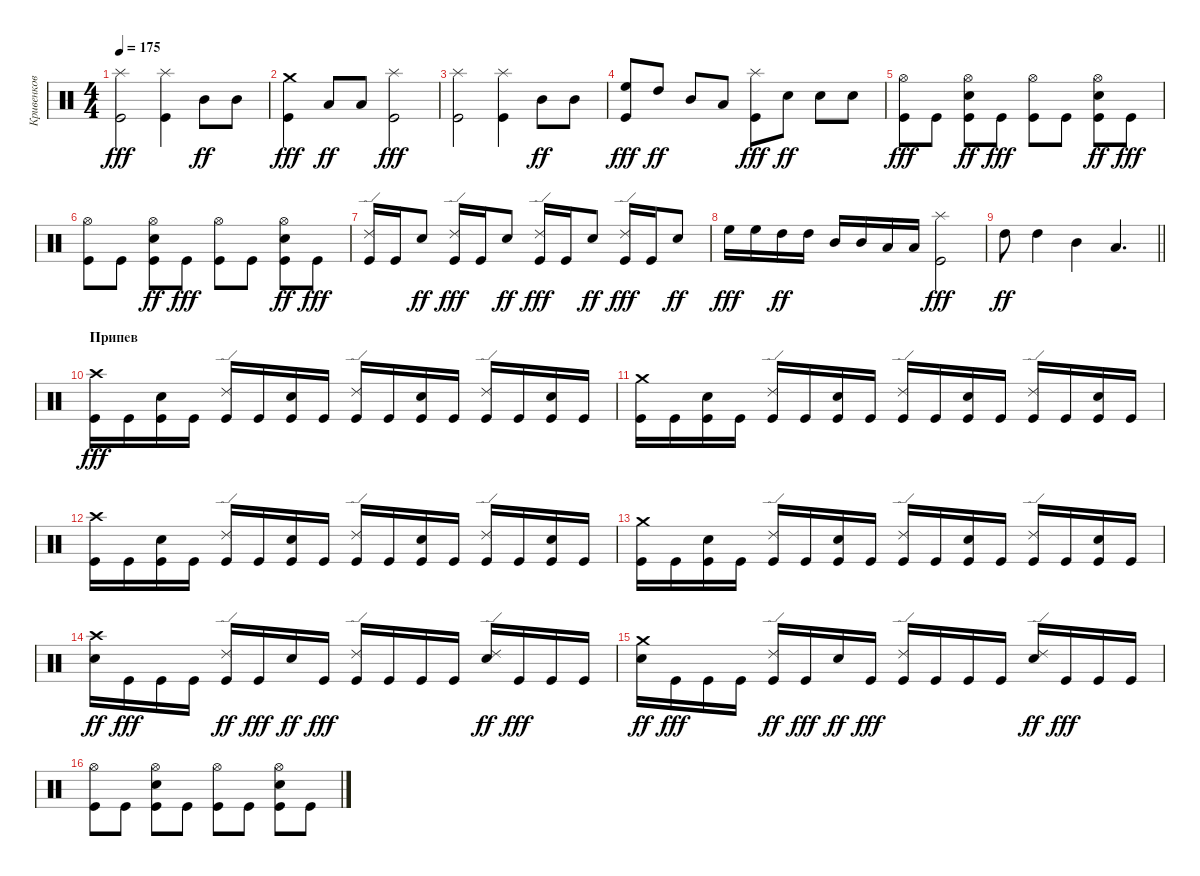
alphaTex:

\track ("Кривенков" "Кривенков") {instrument percussion}
\staff {score}
\articulation defaults
\ts (4 4)
\tempo 175
\clef neutral
\ks c
("Splash (hit)" "Kick (hit)").2{dy fff} ("Splash (hit)" "Kick (hit)").4 "Mid Tom (hit)".8{dy ff} "Mid Tom (hit)".8 |
("Crash medium (hit)" "Kick (hit)").4{dy fff} "Low Tom (hit)".8{dy ff} "Low Tom (hit)".8 ("Splash (hit)" "Kick (hit)").2{dy fff} |
("Splash (hit)" "Kick (hit)").2 ("Splash (hit)" "Kick (hit)").4 "Mid Tom (hit)".8{dy ff} "Mid Tom (hit)".8 |
("High Floor Tom (hit)" "Kick (hit)").8{dy fff} "High Tom (hit)".8{dy ff} "Mid Tom (hit)".8 "Low Tom (hit)".8 ("Splash (hit)" "Kick (hit)").8{dy fff} "Snare (hit) 2".8{dy ff} "Snare (hit) 2".8 "Snare (hit) 2".8 |
("Hi-Hat (open)" "Kick (hit)").8{dy fff} "Kick (hit)".8 ("Hi-Hat (open)" "Kick (hit)" "Snare (hit) 2").8{dy ff} "Kick (hit)".8{dy fff} ("Hi-Hat (open)" "Kick (hit)").8 "Kick (hit)".8 ("Hi-Hat (open)" "Kick (hit)" "Snare (hit) 2").8{dy ff} "Kick (hit)".8{dy fff} |
("Hi-Hat (open)" "Kick (hit)").8 "Kick (hit)".8 ("Hi-Hat (open)" "Kick (hit)" "Snare (hit) 2").8{dy ff} "Kick (hit)".8{dy fff} ("Hi-Hat (open)" "Kick (hit)").8 "Kick (hit)".8 ("Hi-Hat (open)" "Kick (hit)" "Snare (hit) 2").8{dy ff} "Kick (hit)".8{dy fff} |
("Ride (edge) 2" "Kick (hit)").16 "Kick (hit)".16 "Snare (hit) 2".8{dy ff} ("Ride (edge) 2" "Kick (hit)").16{dy fff} "Kick (hit)".16 "Snare (hit) 2".8{dy ff} ("Ride (edge) 2" "Kick (hit)").16{dy fff} "Kick (hit)".16 "Snare (hit) 2".8{dy ff} ("Ride (edge) 2" "Kick (hit)").16{dy fff} "Kick (hit)".16 "Snare (hit) 2".8{dy ff} |
"High Floor Tom (hit)".16{dy fff} "High Floor Tom (hit)".16 "High Tom (hit)".16{dy ff} "High Tom (hit)".16 "Mid Tom (hit)".16 "Mid Tom (hit)".16 "Low Tom (hit)".16 "Low Tom (hit)".16 ("Splash (hit)" "Kick (hit)").2{dy fff} |
\barLineRight lightlight "High Tom (hit)".8{dy ff} "High Tom (hit)".4 "Mid Tom (hit)".4 "Low Tom (hit)".4{d}
|
\section ("" "Припев")
("Crash high (hit)" "Kick (hit)").16{dy fff} "Kick (hit)".16 ("Snare (hit) 2" "Kick (hit)").16 "Kick (hit)".16 ("Ride (edge) 2" "Kick (hit)").16 "Kick (hit)".16 ("Snare (hit) 2" "Kick (hit)").16 "Kick (hit)".16 ("Ride (edge) 2" "Kick (hit)").16 "Kick (hit)".16 ("Snare (hit) 2" "Kick (hit)").16 "Kick (hit)".16 ("Ride (edge) 2" "Kick (hit)").16 "Kick (hit)".16 ("Snare (hit) 2" "Kick (hit)").16 "Kick (hit)".16 |
("Crash medium (hit)" "Kick (hit)").16 "Kick (hit)".16 ("Snare (hit) 2" "Kick (hit)").16 "Kick (hit)".16 ("Ride (edge) 2" "Kick (hit)").16 "Kick (hit)".16 ("Snare (hit) 2" "Kick (hit)").16 "Kick (hit)".16 ("Ride (edge) 2" "Kick (hit)").16 "Kick (hit)".16 ("Snare (hit) 2" "Kick (hit)").16 "Kick (hit)".16 ("Ride (edge) 2" "Kick (hit)").16 "Kick (hit)".16 ("Snare (hit) 2" "Kick (hit)").16 "Kick (hit)".16 |
("Crash high (hit)" "Kick (hit)").16 "Kick (hit)".16 ("Snare (hit) 2" "Kick (hit)").16 "Kick (hit)".16 ("Ride (edge) 2" "Kick (hit)").16 "Kick (hit)".16 ("Snare (hit) 2" "Kick (hit)").16 "Kick (hit)".16 ("Ride (edge) 2" "Kick (hit)").16 "Kick (hit)".16 ("Snare (hit) 2" "Kick (hit)").16 "Kick (hit)".16 ("Ride (edge) 2" "Kick (hit)").16 "Kick (hit)".16 ("Snare (hit) 2" "Kick (hit)").16 "Kick (hit)".16 |
("Crash medium (hit)" "Kick (hit)").16 "Kick (hit)".16 ("Snare (hit) 2" "Kick (hit)").16 "Kick (hit)".16 ("Ride (edge) 2" "Kick (hit)").16 "Kick (hit)".16 ("Snare (hit) 2" "Kick (hit)").16 "Kick (hit)".16 ("Ride (edge) 2" "Kick (hit)").16 "Kick (hit)".16 ("Snare (hit) 2" "Kick (hit)").16 "Kick (hit)".16 ("Ride (edge) 2" "Kick (hit)").16 "Kick (hit)".16 ("Snare (hit) 2" "Kick (hit)").16 "Kick (hit)".16 |
("Crash high (hit)" "Snare (hit) 2").16{dy ff} "Kick (hit)".16{dy fff} "Kick (hit)".16 "Kick (hit)".16 ("Kick (hit)" "Ride (edge) 2").16{dy ff} "Kick (hit)".16{dy fff} "Snare (hit) 2".16{dy ff} "Kick (hit)".16{dy fff} ("Ride (edge) 2" "Kick (hit)").16 "Kick (hit)".16 "Kick (hit)".16 "Kick (hit)".16 ("Ride (edge) 2" "Snare (hit) 2").16{dy ff} "Kick (hit)".16{dy fff} "Kick (hit)".16 "Kick (hit)".16 |
("Crash medium (hit)" "Snare (hit) 2").16{dy ff} "Kick (hit)".16{dy fff} "Kick (hit)".16 "Kick (hit)".16 ("Kick (hit)" "Ride (edge) 2").16{dy ff} "Kick (hit)".16{dy fff} "Snare (hit) 2".16{dy ff} "Kick (hit)".16{dy fff} ("Ride (edge) 2" "Kick (hit)").16 "Kick (hit)".16 "Kick (hit)".16 "Kick (hit)".16 ("Ride (edge) 2" "Snare (hit) 2").16{dy ff} "Kick (hit)".16{dy fff} "Kick (hit)".16 "Kick (hit)".16 |
("Hi-Hat (open)" "Kick (hit)").8 "Kick (hit)".8 ("Hi-Hat (open)" "Snare (hit) 2" "Kick (hit)").8 "Kick (hit)".8 ("Hi-Hat (open)" "Kick (hit)").8 "Kick (hit)".8 ("Snare (hit) 2" "Kick (hit)" "Hi-Hat (open)").8 "Kick (hit)".8
